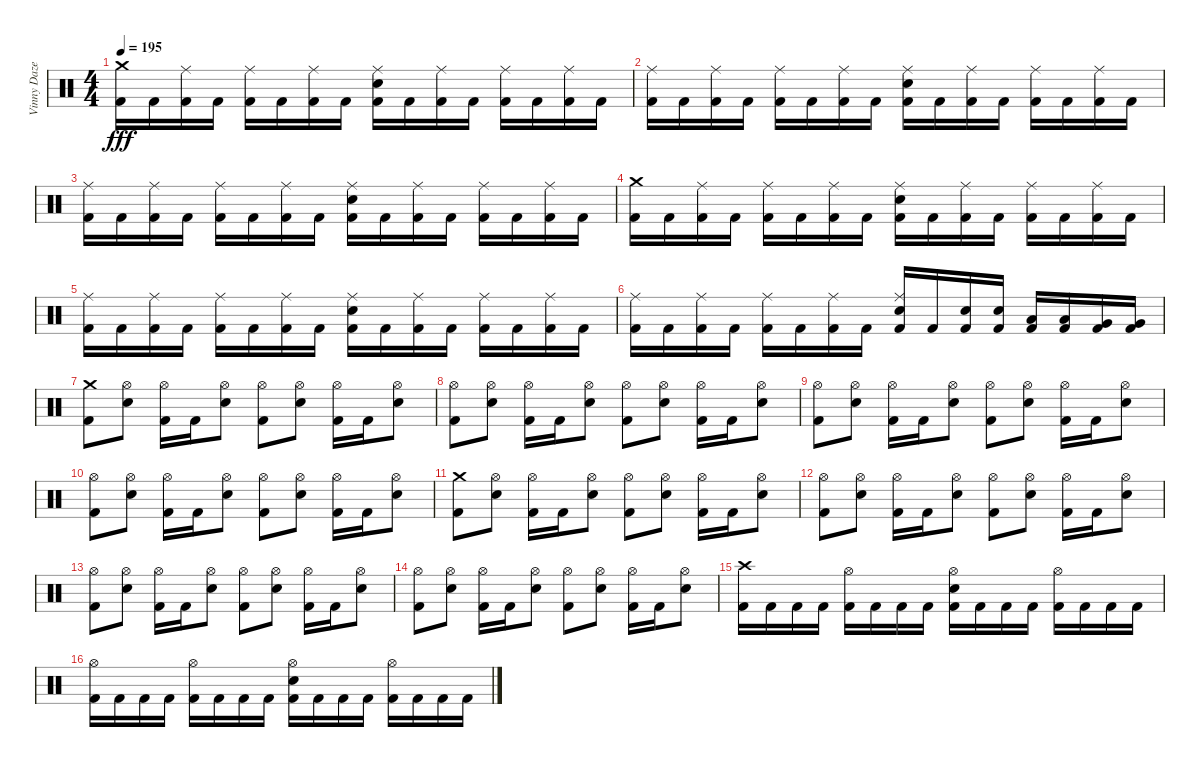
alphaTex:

\track ("Vinny Daze (R.I.P.)" "Vinny Daze") {instrument percussion}
\staff {score}
\articulation defaults
\ts (4 4)
\tempo 195
\clef neutral
\ks c
("Crash medium (hit)" "Kick (hit) 2").16{dy fff} "Kick (hit) 2".16 ("Ride (middle)" "Kick (hit) 2").16 "Kick (hit) 2".16 ("Ride (middle)" "Kick (hit) 2").16 "Kick (hit) 2".16 ("Ride (middle)" "Kick (hit) 2").16 "Kick (hit) 2".16 ("Ride (middle)" "Electric Snare (hit)" "Kick (hit) 2").16 "Kick (hit) 2".16 ("Ride (middle)" "Kick (hit) 2").16 "Kick (hit) 2".16 ("Ride (middle)" "Kick (hit) 2").16 "Kick (hit) 2".16 ("Ride (middle)" "Kick (hit) 2").16 "Kick (hit) 2".16 |
("Ride (middle)" "Kick (hit) 2").16 "Kick (hit) 2".16 ("Ride (middle)" "Kick (hit) 2").16 "Kick (hit) 2".16 ("Ride (middle)" "Kick (hit) 2").16 "Kick (hit) 2".16 ("Ride (middle)" "Kick (hit) 2").16 "Kick (hit) 2".16 ("Ride (middle)" "Electric Snare (hit)" "Kick (hit) 2").16 "Kick (hit) 2".16 ("Ride (middle)" "Kick (hit) 2").16 "Kick (hit) 2".16 ("Ride (middle)" "Kick (hit) 2").16 "Kick (hit) 2".16 ("Ride (middle)" "Kick (hit) 2").16 "Kick (hit) 2".16 |
("Ride (middle)" "Kick (hit) 2").16 "Kick (hit) 2".16 ("Ride (middle)" "Kick (hit) 2").16 "Kick (hit) 2".16 ("Ride (middle)" "Kick (hit) 2").16 "Kick (hit) 2".16 ("Ride (middle)" "Kick (hit) 2").16 "Kick (hit) 2".16 ("Ride (middle)" "Electric Snare (hit)" "Kick (hit) 2").16 "Kick (hit) 2".16 ("Ride (middle)" "Kick (hit) 2").16 "Kick (hit) 2".16 ("Ride (middle)" "Kick (hit) 2").16 "Kick (hit) 2".16 ("Ride (middle)" "Kick (hit) 2").16 "Kick (hit) 2".16 |
("Crash medium (hit)" "Kick (hit) 2").16 "Kick (hit) 2".16 ("Ride (middle)" "Kick (hit) 2").16 "Kick (hit) 2".16 ("Ride (middle)" "Kick (hit) 2").16 "Kick (hit) 2".16 ("Ride (middle)" "Kick (hit) 2").16 "Kick (hit) 2".16 ("Ride (middle)" "Electric Snare (hit)" "Kick (hit) 2").16 "Kick (hit) 2".16 ("Ride (middle)" "Kick (hit) 2").16 "Kick (hit) 2".16 ("Ride (middle)" "Kick (hit) 2").16 "Kick (hit) 2".16 ("Ride (middle)" "Kick (hit) 2").16 "Kick (hit) 2".16 |
("Ride (middle)" "Kick (hit) 2").16 "Kick (hit) 2".16 ("Ride (middle)" "Kick (hit) 2").16 "Kick (hit) 2".16 ("Ride (middle)" "Kick (hit) 2").16 "Kick (hit) 2".16 ("Ride (middle)" "Kick (hit) 2").16 "Kick (hit) 2".16 ("Ride (middle)" "Electric Snare (hit)" "Kick (hit) 2").16 "Kick (hit) 2".16 ("Ride (middle)" "Kick (hit) 2").16 "Kick (hit) 2".16 ("Ride (middle)" "Kick (hit) 2").16 "Kick (hit) 2".16 ("Ride (middle)" "Kick (hit) 2").16 "Kick (hit) 2".16 |
("Ride (middle)" "Kick (hit) 2").16 "Kick (hit) 2".16 ("Ride (middle)" "Kick (hit) 2").16 "Kick (hit) 2".16 ("Ride (middle)" "Kick (hit) 2").16 "Kick (hit) 2".16 ("Ride (middle)" "Kick (hit) 2").16 "Kick (hit) 2".16 ("Ride (middle)" "Electric Snare (hit)" "Kick (hit) 2").16 "Kick (hit) 2".16 ("Electric Snare (hit)" "Kick (hit) 2").16 ("Electric Snare (hit)" "Kick (hit) 2").16 ("Low Tom (hit)" "Kick (hit) 2").16 ("Low Tom (hit)" "Kick (hit) 2").16 ("Very Low Tom (hit)" "Kick (hit) 2").16 ("Very Low Tom (hit)" "Kick (hit) 2").16 |
("Crash medium (hit)" "Kick (hit) 2").8 ("Hi-Hat (open)" "Electric Snare (hit)").8 ("Hi-Hat (open)" "Kick (hit) 2").16 "Kick (hit) 2".16 ("Hi-Hat (open)" "Electric Snare (hit)").8 ("Hi-Hat (open)" "Kick (hit) 2").8 ("Hi-Hat (open)" "Electric Snare (hit)").8 ("Hi-Hat (open)" "Kick (hit) 2").16 "Kick (hit) 2".16 ("Hi-Hat (open)" "Electric Snare (hit)").8 |
("Hi-Hat (open)" "Kick (hit) 2").8 ("Hi-Hat (open)" "Electric Snare (hit)").8 ("Hi-Hat (open)" "Kick (hit) 2").16 "Kick (hit) 2".16 ("Hi-Hat (open)" "Electric Snare (hit)").8 ("Hi-Hat (open)" "Kick (hit) 2").8 ("Hi-Hat (open)" "Electric Snare (hit)").8 ("Hi-Hat (open)" "Kick (hit) 2").16 "Kick (hit) 2".16 ("Hi-Hat (open)" "Electric Snare (hit)").8 |
("Hi-Hat (open)" "Kick (hit) 2").8 ("Hi-Hat (open)" "Electric Snare (hit)").8 ("Hi-Hat (open)" "Kick (hit) 2").16 "Kick (hit) 2".16 ("Hi-Hat (open)" "Electric Snare (hit)").8 ("Hi-Hat (open)" "Kick (hit) 2").8 ("Hi-Hat (open)" "Electric Snare (hit)").8 ("Hi-Hat (open)" "Kick (hit) 2").16 "Kick (hit) 2".16 ("Hi-Hat (open)" "Electric Snare (hit)").8 |
("Hi-Hat (open)" "Kick (hit) 2").8 ("Hi-Hat (open)" "Electric Snare (hit)").8 ("Hi-Hat (open)" "Kick (hit) 2").16 "Kick (hit) 2".16 ("Hi-Hat (open)" "Electric Snare (hit)").8 ("Hi-Hat (open)" "Kick (hit) 2").8 ("Hi-Hat (open)" "Electric Snare (hit)").8 ("Hi-Hat (open)" "Kick (hit) 2").16 "Kick (hit) 2".16 ("Hi-Hat (open)" "Electric Snare (hit)").8 |
("Crash medium (hit)" "Kick (hit) 2").8 ("Hi-Hat (open)" "Electric Snare (hit)").8 ("Hi-Hat (open)" "Kick (hit) 2").16 "Kick (hit) 2".16 ("Hi-Hat (open)" "Electric Snare (hit)").8 ("Hi-Hat (open)" "Kick (hit) 2").8 ("Hi-Hat (open)" "Electric Snare (hit)").8 ("Hi-Hat (open)" "Kick (hit) 2").16 "Kick (hit) 2".16 ("Hi-Hat (open)" "Electric Snare (hit)").8 |
("Hi-Hat (open)" "Kick (hit) 2").8 ("Hi-Hat (open)" "Electric Snare (hit)").8 ("Hi-Hat (open)" "Kick (hit) 2").16 "Kick (hit) 2".16 ("Hi-Hat (open)" "Electric Snare (hit)").8 ("Hi-Hat (open)" "Kick (hit) 2").8 ("Hi-Hat (open)" "Electric Snare (hit)").8 ("Hi-Hat (open)" "Kick (hit) 2").16 "Kick (hit) 2".16 ("Hi-Hat (open)" "Electric Snare (hit)").8 |
("Hi-Hat (open)" "Kick (hit) 2").8 ("Hi-Hat (open)" "Electric Snare (hit)").8 ("Hi-Hat (open)" "Kick (hit) 2").16 "Kick (hit) 2".16 ("Hi-Hat (open)" "Electric Snare (hit)").8 ("Hi-Hat (open)" "Kick (hit) 2").8 ("Hi-Hat (open)" "Electric Snare (hit)").8 ("Hi-Hat (open)" "Kick (hit) 2").16 "Kick (hit) 2".16 ("Hi-Hat (open)" "Electric Snare (hit)").8 |
("Hi-Hat (open)" "Kick (hit) 2").8 ("Hi-Hat (open)" "Electric Snare (hit)").8 ("Hi-Hat (open)" "Kick (hit) 2").16 "Kick (hit) 2".16 ("Hi-Hat (open)" "Electric Snare (hit)").8 ("Hi-Hat (open)" "Kick (hit) 2").8 ("Hi-Hat (open)" "Electric Snare (hit)").8 ("Hi-Hat (open)" "Kick (hit) 2").16 "Kick (hit) 2".16 ("Hi-Hat (open)" "Electric Snare (hit)").8 |
("Crash high (hit)" "Kick (hit) 2").16 "Kick (hit) 2".16 "Kick (hit) 2".16 "Kick (hit) 2".16 ("Hi-Hat (open)" "Kick (hit) 2").16 "Kick (hit) 2".16 "Kick (hit) 2".16 "Kick (hit) 2".16 ("Hi-Hat (open)" "Electric Snare (hit)" "Kick (hit) 2").16 "Kick (hit) 2".16 "Kick (hit) 2".16 "Kick (hit) 2".16 ("Hi-Hat (open)" "Kick (hit) 2").16 "Kick (hit) 2".16 "Kick (hit) 2".16 "Kick (hit) 2".16 |
("Hi-Hat (open)" "Kick (hit) 2").16 "Kick (hit) 2".16 "Kick (hit) 2".16 "Kick (hit) 2".16 ("Hi-Hat (open)" "Kick (hit) 2").16 "Kick (hit) 2".16 "Kick (hit) 2".16 "Kick (hit) 2".16 ("Hi-Hat (open)" "Electric Snare (hit)" "Kick (hit) 2").16 "Kick (hit) 2".16 "Kick (hit) 2".16 "Kick (hit) 2".16 ("Hi-Hat (open)" "Kick (hit) 2").16 "Kick (hit) 2".16 "Kick (hit) 2".16 "Kick (hit) 2".16
